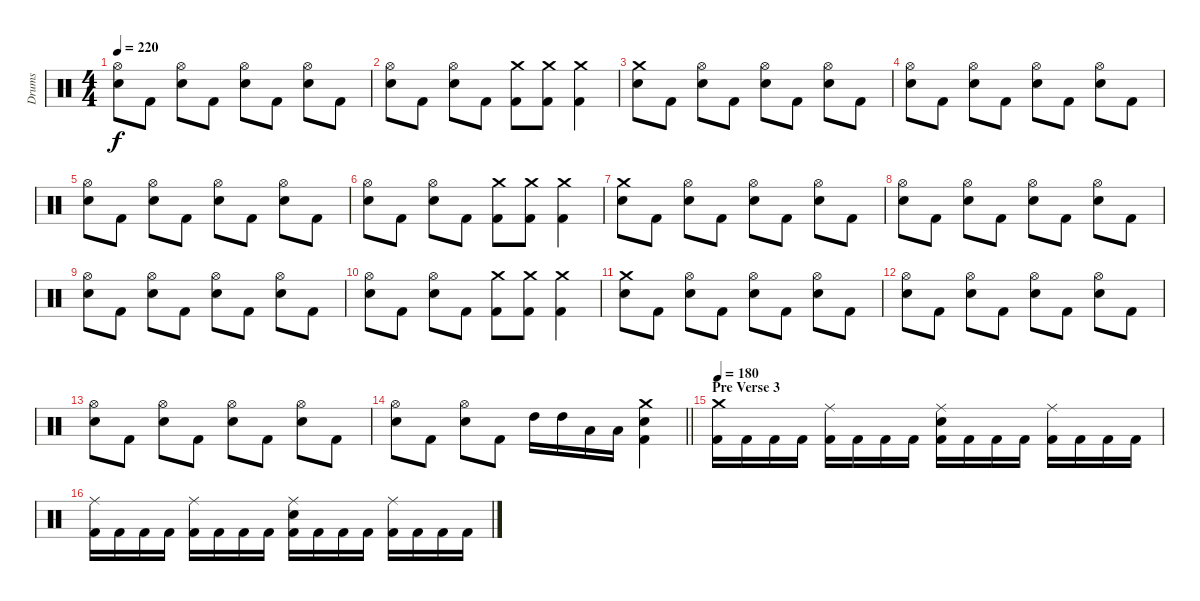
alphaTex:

\track ("Drums" "Drums") {instrument percussion}
\staff {score}
\articulation defaults
\ts (4 4)
\tempo 220
\clef neutral
\ks c
("Hi-Hat (open)" "Electric Snare (hit)").8{dy f} "Kick (hit) 2".8 ("Hi-Hat (open)" "Electric Snare (hit)").8 "Kick (hit) 2".8 ("Hi-Hat (open)" "Electric Snare (hit)").8 "Kick (hit) 2".8 ("Hi-Hat (open)" "Electric Snare (hit)").8 "Kick (hit) 2".8 |
("Hi-Hat (open)" "Electric Snare (hit)").8 "Kick (hit) 2".8 ("Hi-Hat (open)" "Electric Snare (hit)").8 "Kick (hit) 2".8 ("Crash medium (hit)" "Kick (hit) 2").8 ("Crash medium (hit)" "Kick (hit) 2").8 ("Crash medium (hit)" "Kick (hit) 2").4 |
("Crash medium (hit)" "Electric Snare (hit)").8 "Kick (hit) 2".8 ("Hi-Hat (open)" "Electric Snare (hit)").8 "Kick (hit) 2".8 ("Hi-Hat (open)" "Electric Snare (hit)").8 "Kick (hit) 2".8 ("Hi-Hat (open)" "Electric Snare (hit)").8 "Kick (hit) 2".8 |
("Hi-Hat (open)" "Electric Snare (hit)").8 "Kick (hit) 2".8 ("Hi-Hat (open)" "Electric Snare (hit)").8 "Kick (hit) 2".8 ("Hi-Hat (open)" "Electric Snare (hit)").8 "Kick (hit) 2".8 ("Hi-Hat (open)" "Electric Snare (hit)").8 "Kick (hit) 2".8 |
("Hi-Hat (open)" "Electric Snare (hit)").8 "Kick (hit) 2".8 ("Hi-Hat (open)" "Electric Snare (hit)").8 "Kick (hit) 2".8 ("Hi-Hat (open)" "Electric Snare (hit)").8 "Kick (hit) 2".8 ("Hi-Hat (open)" "Electric Snare (hit)").8 "Kick (hit) 2".8 |
("Hi-Hat (open)" "Electric Snare (hit)").8 "Kick (hit) 2".8 ("Hi-Hat (open)" "Electric Snare (hit)").8 "Kick (hit) 2".8 ("Crash medium (hit)" "Kick (hit) 2").8 ("Crash medium (hit)" "Kick (hit) 2").8 ("Crash medium (hit)" "Kick (hit) 2").4 |
("Crash medium (hit)" "Electric Snare (hit)").8 "Kick (hit) 2".8 ("Hi-Hat (open)" "Electric Snare (hit)").8 "Kick (hit) 2".8 ("Hi-Hat (open)" "Electric Snare (hit)").8 "Kick (hit) 2".8 ("Hi-Hat (open)" "Electric Snare (hit)").8 "Kick (hit) 2".8 |
("Hi-Hat (open)" "Electric Snare (hit)").8 "Kick (hit) 2".8 ("Hi-Hat (open)" "Electric Snare (hit)").8 "Kick (hit) 2".8 ("Hi-Hat (open)" "Electric Snare (hit)").8 "Kick (hit) 2".8 ("Hi-Hat (open)" "Electric Snare (hit)").8 "Kick (hit) 2".8 |
("Hi-Hat (open)" "Electric Snare (hit)").8 "Kick (hit) 2".8 ("Hi-Hat (open)" "Electric Snare (hit)").8 "Kick (hit) 2".8 ("Hi-Hat (open)" "Electric Snare (hit)").8 "Kick (hit) 2".8 ("Hi-Hat (open)" "Electric Snare (hit)").8 "Kick (hit) 2".8 |
("Hi-Hat (open)" "Electric Snare (hit)").8 "Kick (hit) 2".8 ("Hi-Hat (open)" "Electric Snare (hit)").8 "Kick (hit) 2".8 ("Crash medium (hit)" "Kick (hit) 2").8 ("Crash medium (hit)" "Kick (hit) 2").8 ("Crash medium (hit)" "Kick (hit) 2").4 |
("Crash medium (hit)" "Electric Snare (hit)").8 "Kick (hit) 2".8 ("Hi-Hat (open)" "Electric Snare (hit)").8 "Kick (hit) 2".8 ("Hi-Hat (open)" "Electric Snare (hit)").8 "Kick (hit) 2".8 ("Hi-Hat (open)" "Electric Snare (hit)").8 "Kick (hit) 2".8 |
("Hi-Hat (open)" "Electric Snare (hit)").8 "Kick (hit) 2".8 ("Hi-Hat (open)" "Electric Snare (hit)").8 "Kick (hit) 2".8 ("Hi-Hat (open)" "Electric Snare (hit)").8 "Kick (hit) 2".8 ("Hi-Hat (open)" "Electric Snare (hit)").8 "Kick (hit) 2".8 |
("Hi-Hat (open)" "Electric Snare (hit)").8 "Kick (hit) 2".8 ("Hi-Hat (open)" "Electric Snare (hit)").8 "Kick (hit) 2".8 ("Hi-Hat (open)" "Electric Snare (hit)").8 "Kick (hit) 2".8 ("Hi-Hat (open)" "Electric Snare (hit)").8 "Kick (hit) 2".8 |
\barLineRight lightlight
("Hi-Hat (open)" "Electric Snare (hit)").8 "Kick (hit) 2".8 ("Hi-Hat (open)" "Electric Snare (hit)").8 "Kick (hit) 2".8 "High Tom (hit)".16 "High Tom (hit)".16 "Low Tom (hit)".16 "Low Tom (hit)".16 ("Crash medium (hit)" "Electric Snare (hit)" "Kick (hit) 2").4 |
\section ("" "Pre Verse 3")
\tempo 180
("Crash medium (hit)" "Kick (hit) 2").16 "Kick (hit) 2".16 "Kick (hit) 2".16 "Kick (hit) 2".16 ("Ride (middle)" "Kick (hit) 2").16 "Kick (hit) 2".16 "Kick (hit) 2".16 "Kick (hit) 2".16 ("Ride (middle)" "Electric Snare (hit)" "Kick (hit) 2").16 "Kick (hit) 2".16 "Kick (hit) 2".16 "Kick (hit) 2".16 ("Ride (middle)" "Kick (hit) 2").16 "Kick (hit) 2".16 "Kick (hit) 2".16 "Kick (hit) 2".16 |
("Ride (middle)" "Kick (hit) 2").16 "Kick (hit) 2".16 "Kick (hit) 2".16 "Kick (hit) 2".16 ("Ride (middle)" "Kick (hit) 2").16 "Kick (hit) 2".16 "Kick (hit) 2".16 "Kick (hit) 2".16 ("Ride (middle)" "Electric Snare (hit)" "Kick (hit) 2").16 "Kick (hit) 2".16 "Kick (hit) 2".16 "Kick (hit) 2".16 ("Ride (middle)" "Kick (hit) 2").16 "Kick (hit) 2".16 "Kick (hit) 2".16 "Kick (hit) 2".16
